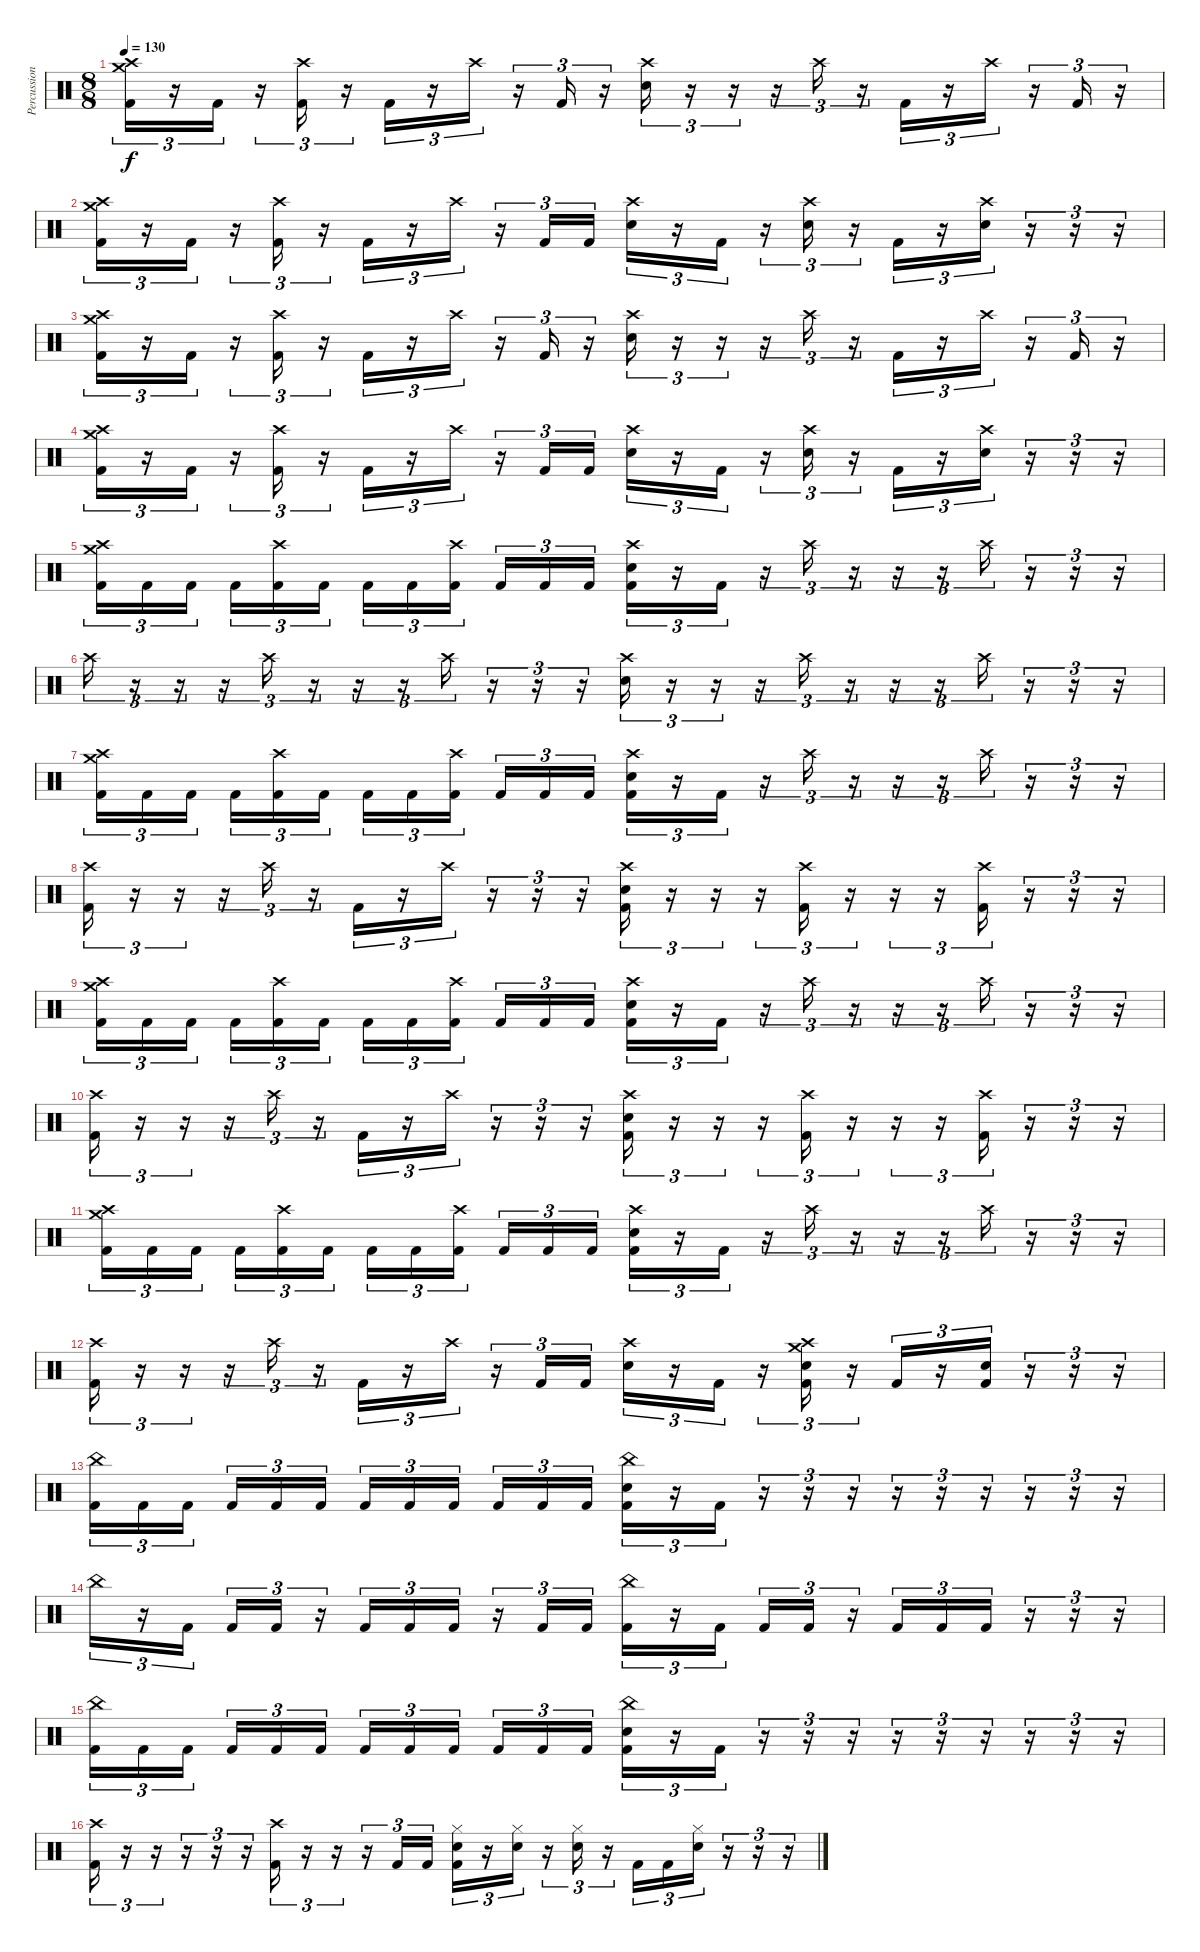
\track ("Percussion" "Percussion") {instrument percussion}
\staff {score}
\articulation defaults
\ts (8 8)
\tempo 130
\clef neutral
\ks c
("Crash high (hit)" "Crash medium (hit)" "Kick (hit) 2").16{tu (3 2) dy f} r.16{tu (3 2)} "Kick (hit) 2".16{tu (3 2)} r.16{tu (3 2)} ("Crash high (hit)" "Kick (hit) 2").16{tu (3 2)} r.16{tu (3 2)} "Kick (hit) 2".16{tu (3 2)} r.16{tu (3 2)} "Crash high (hit)".16{tu (3 2)} r.16{tu (3 2)} "Kick (hit) 2".16{tu (3 2)} r.16{tu (3 2)} ("Crash high (hit)" "Snare (hit) 2").16{tu (3 2)} r.16{tu (3 2)} r.16{tu (3 2)} r.16{tu (3 2)} "Crash high (hit)".16{tu (3 2)} r.16{tu (3 2)} "Kick (hit) 2".16{tu (3 2)} r.16{tu (3 2)} "Crash high (hit)".16{tu (3 2)} r.16{tu (3 2)} "Kick (hit) 2".16{tu (3 2)} r.16{tu (3 2)} |
("Crash high (hit)" "Crash medium (hit)" "Kick (hit) 2").16{tu (3 2)} r.16{tu (3 2)} "Kick (hit) 2".16{tu (3 2)} r.16{tu (3 2)} ("Crash high (hit)" "Kick (hit) 2").16{tu (3 2)} r.16{tu (3 2)} "Kick (hit) 2".16{tu (3 2)} r.16{tu (3 2)} "Crash high (hit)".16{tu (3 2)} r.16{tu (3 2)} "Kick (hit) 2".16{tu (3 2)} "Kick (hit) 2".16{tu (3 2)} ("Crash high (hit)" "Snare (hit) 2").16{tu (3 2)} r.16{tu (3 2)} "Kick (hit) 2".16{tu (3 2)} r.16{tu (3 2)} ("Crash high (hit)" "Snare (hit) 2").16{tu (3 2)} r.16{tu (3 2)} "Kick (hit) 2".16{tu (3 2)} r.16{tu (3 2)} ("Crash high (hit)" "Snare (hit) 2").16{tu (3 2)} r.16{tu (3 2)} r.16{tu (3 2)} r.16{tu (3 2)} |
("Crash high (hit)" "Crash medium (hit)" "Kick (hit) 2").16{tu (3 2)} r.16{tu (3 2)} "Kick (hit) 2".16{tu (3 2)} r.16{tu (3 2)} ("Crash high (hit)" "Kick (hit) 2").16{tu (3 2)} r.16{tu (3 2)} "Kick (hit) 2".16{tu (3 2)} r.16{tu (3 2)} "Crash high (hit)".16{tu (3 2)} r.16{tu (3 2)} "Kick (hit) 2".16{tu (3 2)} r.16{tu (3 2)} ("Crash high (hit)" "Snare (hit) 2").16{tu (3 2)} r.16{tu (3 2)} r.16{tu (3 2)} r.16{tu (3 2)} "Crash high (hit)".16{tu (3 2)} r.16{tu (3 2)} "Kick (hit) 2".16{tu (3 2)} r.16{tu (3 2)} "Crash high (hit)".16{tu (3 2)} r.16{tu (3 2)} "Kick (hit) 2".16{tu (3 2)} r.16{tu (3 2)} |
("Crash high (hit)" "Crash medium (hit)" "Kick (hit) 2").16{tu (3 2)} r.16{tu (3 2)} "Kick (hit) 2".16{tu (3 2)} r.16{tu (3 2)} ("Crash high (hit)" "Kick (hit) 2").16{tu (3 2)} r.16{tu (3 2)} "Kick (hit) 2".16{tu (3 2)} r.16{tu (3 2)} "Crash high (hit)".16{tu (3 2)} r.16{tu (3 2)} "Kick (hit) 2".16{tu (3 2)} "Kick (hit) 2".16{tu (3 2)} ("Crash high (hit)" "Snare (hit) 2").16{tu (3 2)} r.16{tu (3 2)} "Kick (hit) 2".16{tu (3 2)} r.16{tu (3 2)} ("Crash high (hit)" "Snare (hit) 2").16{tu (3 2)} r.16{tu (3 2)} "Kick (hit) 2".16{tu (3 2)} r.16{tu (3 2)} ("Crash high (hit)" "Snare (hit) 2").16{tu (3 2)} r.16{tu (3 2)} r.16{tu (3 2)} r.16{tu (3 2)} |
("Crash high (hit)" "Crash medium (hit)" "Kick (hit) 2").16{tu (3 2)} "Kick (hit) 2".16{tu (3 2)} "Kick (hit) 2".16{tu (3 2)} "Kick (hit) 2".16{tu (3 2)} ("Crash high (hit)" "Kick (hit) 2").16{tu (3 2)} "Kick (hit) 2".16{tu (3 2)} "Kick (hit) 2".16{tu (3 2)} "Kick (hit) 2".16{tu (3 2)} ("Crash high (hit)" "Kick (hit) 2").16{tu (3 2)} "Kick (hit) 2".16{tu (3 2)} "Kick (hit) 2".16{tu (3 2)} "Kick (hit) 2".16{tu (3 2)} ("Crash high (hit)" "Snare (hit) 2" "Kick (hit) 2").16{tu (3 2)} r.16{tu (3 2)} "Kick (hit) 2".16{tu (3 2)} r.16{tu (3 2)} "Crash high (hit)".16{tu (3 2)} r.16{tu (3 2)} r.16{tu (3 2)} r.16{tu (3 2)} "Crash high (hit)".16{tu (3 2)} r.16{tu (3 2)} r.16{tu (3 2)} r.16{tu (3 2)} |
"Crash high (hit)".16{tu (3 2)} r.16{tu (3 2)} r.16{tu (3 2)} r.16{tu (3 2)} "Crash high (hit)".16{tu (3 2)} r.16{tu (3 2)} r.16{tu (3 2)} r.16{tu (3 2)} "Crash high (hit)".16{tu (3 2)} r.16{tu (3 2)} r.16{tu (3 2)} r.16{tu (3 2)} ("Crash high (hit)" "Snare (hit) 2").16{tu (3 2)} r.16{tu (3 2)} r.16{tu (3 2)} r.16{tu (3 2)} "Crash high (hit)".16{tu (3 2)} r.16{tu (3 2)} r.16{tu (3 2)} r.16{tu (3 2)} "Crash high (hit)".16{tu (3 2)} r.16{tu (3 2)} r.16{tu (3 2)} r.16{tu (3 2)} |
("Crash high (hit)" "Crash medium (hit)" "Kick (hit) 2").16{tu (3 2)} "Kick (hit) 2".16{tu (3 2)} "Kick (hit) 2".16{tu (3 2)} "Kick (hit) 2".16{tu (3 2)} ("Crash high (hit)" "Kick (hit) 2").16{tu (3 2)} "Kick (hit) 2".16{tu (3 2)} "Kick (hit) 2".16{tu (3 2)} "Kick (hit) 2".16{tu (3 2)} ("Crash high (hit)" "Kick (hit) 2").16{tu (3 2)} "Kick (hit) 2".16{tu (3 2)} "Kick (hit) 2".16{tu (3 2)} "Kick (hit) 2".16{tu (3 2)} ("Crash high (hit)" "Snare (hit) 2" "Kick (hit) 2").16{tu (3 2)} r.16{tu (3 2)} "Kick (hit) 2".16{tu (3 2)} r.16{tu (3 2)} "Crash high (hit)".16{tu (3 2)} r.16{tu (3 2)} r.16{tu (3 2)} r.16{tu (3 2)} "Crash high (hit)".16{tu (3 2)} r.16{tu (3 2)} r.16{tu (3 2)} r.16{tu (3 2)} |
("Crash high (hit)" "Kick (hit) 2").16{tu (3 2)} r.16{tu (3 2)} r.16{tu (3 2)} r.16{tu (3 2)} "Crash high (hit)".16{tu (3 2)} r.16{tu (3 2)} "Kick (hit) 2".16{tu (3 2)} r.16{tu (3 2)} "Crash high (hit)".16{tu (3 2)} r.16{tu (3 2)} r.16{tu (3 2)} r.16{tu (3 2)} ("Crash high (hit)" "Snare (hit) 2" "Kick (hit) 2").16{tu (3 2)} r.16{tu (3 2)} r.16{tu (3 2)} r.16{tu (3 2)} ("Crash high (hit)" "Kick (hit) 2").16{tu (3 2)} r.16{tu (3 2)} r.16{tu (3 2)} r.16{tu (3 2)} ("Crash high (hit)" "Kick (hit) 2").16{tu (3 2)} r.16{tu (3 2)} r.16{tu (3 2)} r.16{tu (3 2)} |
("Crash high (hit)" "Crash medium (hit)" "Kick (hit) 2").16{tu (3 2)} "Kick (hit) 2".16{tu (3 2)} "Kick (hit) 2".16{tu (3 2)} "Kick (hit) 2".16{tu (3 2)} ("Crash high (hit)" "Kick (hit) 2").16{tu (3 2)} "Kick (hit) 2".16{tu (3 2)} "Kick (hit) 2".16{tu (3 2)} "Kick (hit) 2".16{tu (3 2)} ("Crash high (hit)" "Kick (hit) 2").16{tu (3 2)} "Kick (hit) 2".16{tu (3 2)} "Kick (hit) 2".16{tu (3 2)} "Kick (hit) 2".16{tu (3 2)} ("Crash high (hit)" "Snare (hit) 2" "Kick (hit) 2").16{tu (3 2)} r.16{tu (3 2)} "Kick (hit) 2".16{tu (3 2)} r.16{tu (3 2)} "Crash high (hit)".16{tu (3 2)} r.16{tu (3 2)} r.16{tu (3 2)} r.16{tu (3 2)} "Crash high (hit)".16{tu (3 2)} r.16{tu (3 2)} r.16{tu (3 2)} r.16{tu (3 2)} |
("Crash high (hit)" "Kick (hit) 2").16{tu (3 2)} r.16{tu (3 2)} r.16{tu (3 2)} r.16{tu (3 2)} "Crash high (hit)".16{tu (3 2)} r.16{tu (3 2)} "Kick (hit) 2".16{tu (3 2)} r.16{tu (3 2)} "Crash high (hit)".16{tu (3 2)} r.16{tu (3 2)} r.16{tu (3 2)} r.16{tu (3 2)} ("Crash high (hit)" "Snare (hit) 2" "Kick (hit) 2").16{tu (3 2)} r.16{tu (3 2)} r.16{tu (3 2)} r.16{tu (3 2)} ("Crash high (hit)" "Kick (hit) 2").16{tu (3 2)} r.16{tu (3 2)} r.16{tu (3 2)} r.16{tu (3 2)} ("Crash high (hit)" "Kick (hit) 2").16{tu (3 2)} r.16{tu (3 2)} r.16{tu (3 2)} r.16{tu (3 2)} |
("Crash high (hit)" "Crash medium (hit)" "Kick (hit) 2").16{tu (3 2)} "Kick (hit) 2".16{tu (3 2)} "Kick (hit) 2".16{tu (3 2)} "Kick (hit) 2".16{tu (3 2)} ("Crash high (hit)" "Kick (hit) 2").16{tu (3 2)} "Kick (hit) 2".16{tu (3 2)} "Kick (hit) 2".16{tu (3 2)} "Kick (hit) 2".16{tu (3 2)} ("Crash high (hit)" "Kick (hit) 2").16{tu (3 2)} "Kick (hit) 2".16{tu (3 2)} "Kick (hit) 2".16{tu (3 2)} "Kick (hit) 2".16{tu (3 2)} ("Crash high (hit)" "Snare (hit) 2" "Kick (hit) 2").16{tu (3 2)} r.16{tu (3 2)} "Kick (hit) 2".16{tu (3 2)} r.16{tu (3 2)} "Crash high (hit)".16{tu (3 2)} r.16{tu (3 2)} r.16{tu (3 2)} r.16{tu (3 2)} "Crash high (hit)".16{tu (3 2)} r.16{tu (3 2)} r.16{tu (3 2)} r.16{tu (3 2)} |
("Crash high (hit)" "Kick (hit) 2").16{tu (3 2)} r.16{tu (3 2)} r.16{tu (3 2)} r.16{tu (3 2)} "Crash high (hit)".16{tu (3 2)} r.16{tu (3 2)} "Kick (hit) 2".16{tu (3 2)} r.16{tu (3 2)} "Crash high (hit)".16{tu (3 2)} r.16{tu (3 2)} "Kick (hit) 2".16{tu (3 2)} "Kick (hit) 2".16{tu (3 2)} ("Crash high (hit)" "Snare (hit) 2").16{tu (3 2)} r.16{tu (3 2)} "Kick (hit) 2".16{tu (3 2)} r.16{tu (3 2)} ("Crash high (hit)" "Crash medium (hit)" "Snare (hit) 2" "Kick (hit) 2").16{tu (3 2)} r.16{tu (3 2)} "Kick (hit) 2".16{tu (3 2)} r.16{tu (3 2)} ("Snare (hit) 2" "Kick (hit) 2").16{tu (3 2)} r.16{tu (3 2)} r.16{tu (3 2)} r.16{tu (3 2)} |
("China (hit)" "Kick (hit) 2").16{tu (3 2)} "Kick (hit) 2".16{tu (3 2)} "Kick (hit) 2".16{tu (3 2)} "Kick (hit) 2".16{tu (3 2)} "Kick (hit) 2".16{tu (3 2)} "Kick (hit) 2".16{tu (3 2)} "Kick (hit) 2".16{tu (3 2)} "Kick (hit) 2".16{tu (3 2)} "Kick (hit) 2".16{tu (3 2)} "Kick (hit) 2".16{tu (3 2)} "Kick (hit) 2".16{tu (3 2)} "Kick (hit) 2".16{tu (3 2)} ("China (hit)" "Snare (hit) 2" "Kick (hit) 2").16{tu (3 2)} r.16{tu (3 2)} "Kick (hit) 2".16{tu (3 2)} r.16{tu (3 2)} r.16{tu (3 2)} r.16{tu (3 2)} r.16{tu (3 2)} r.16{tu (3 2)} r.16{tu (3 2)} r.16{tu (3 2)} r.16{tu (3 2)} r.16{tu (3 2)} |
"China (hit)".16{tu (3 2)} r.16{tu (3 2)} "Kick (hit) 2".16{tu (3 2)} "Kick (hit) 2".16{tu (3 2)} "Kick (hit) 2".16{tu (3 2)} r.16{tu (3 2)} "Kick (hit) 2".16{tu (3 2)} "Kick (hit) 2".16{tu (3 2)} "Kick (hit) 2".16{tu (3 2)} r.16{tu (3 2)} "Kick (hit) 2".16{tu (3 2)} "Kick (hit) 2".16{tu (3 2)} ("China (hit)" "Kick (hit) 2").16{tu (3 2)} r.16{tu (3 2)} "Kick (hit) 2".16{tu (3 2)} "Kick (hit) 2".16{tu (3 2)} "Kick (hit) 2".16{tu (3 2)} r.16{tu (3 2)} "Kick (hit) 2".16{tu (3 2)} "Kick (hit) 2".16{tu (3 2)} "Kick (hit) 2".16{tu (3 2)} r.16{tu (3 2)} r.16{tu (3 2)} r.16{tu (3 2)} |
("China (hit)" "Kick (hit) 2").16{tu (3 2)} "Kick (hit) 2".16{tu (3 2)} "Kick (hit) 2".16{tu (3 2)} "Kick (hit) 2".16{tu (3 2)} "Kick (hit) 2".16{tu (3 2)} "Kick (hit) 2".16{tu (3 2)} "Kick (hit) 2".16{tu (3 2)} "Kick (hit) 2".16{tu (3 2)} "Kick (hit) 2".16{tu (3 2)} "Kick (hit) 2".16{tu (3 2)} "Kick (hit) 2".16{tu (3 2)} "Kick (hit) 2".16{tu (3 2)} ("China (hit)" "Snare (hit) 2" "Kick (hit) 2").16{tu (3 2)} r.16{tu (3 2)} "Kick (hit) 2".16{tu (3 2)} r.16{tu (3 2)} r.16{tu (3 2)} r.16{tu (3 2)} r.16{tu (3 2)} r.16{tu (3 2)} r.16{tu (3 2)} r.16{tu (3 2)} r.16{tu (3 2)} r.16{tu (3 2)} |
("Crash high (hit)" "Kick (hit) 2").16{tu (3 2)} r.16{tu (3 2)} r.16{tu (3 2)} r.16{tu (3 2)} r.16{tu (3 2)} r.16{tu (3 2)} ("Crash high (hit)" "Kick (hit) 2").16{tu (3 2)} r.16{tu (3 2)} r.16{tu (3 2)} r.16{tu (3 2)} "Kick (hit) 2".16{tu (3 2)} "Kick (hit) 2".16{tu (3 2)} ("Hi-Hat (closed)" "Snare (hit) 2" "Kick (hit) 2").16{tu (3 2)} r.16{tu (3 2)} ("Hi-Hat (closed)" "Snare (hit) 2").16{tu (3 2)} r.16{tu (3 2)} ("Hi-Hat (closed)" "Snare (hit) 2").16{tu (3 2)} r.16{tu (3 2)} "Kick (hit) 2".16{tu (3 2)} "Kick (hit) 2".16{tu (3 2)} ("Hi-Hat (closed)" "Snare (hit) 2").16{tu (3 2)} r.16{tu (3 2)} r.16{tu (3 2)} r.16{tu (3 2)}
